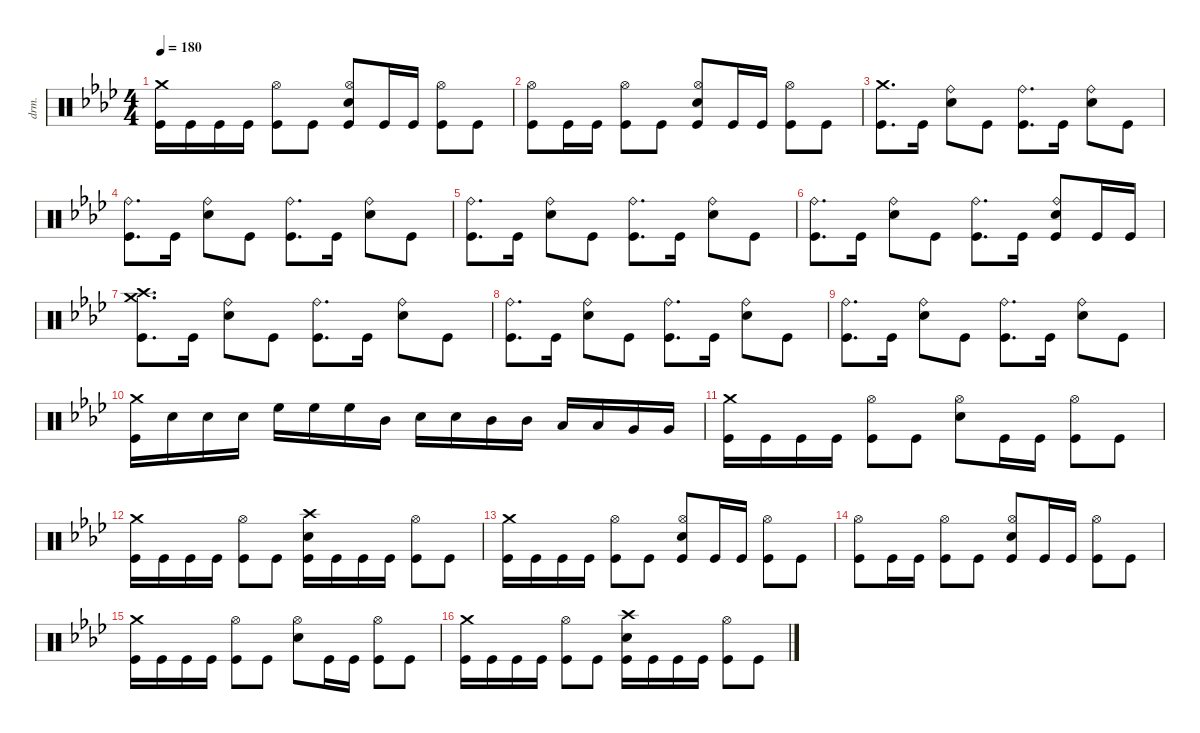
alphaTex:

\defaultSystemsLayout 4
\hideDynamics
\bracketExtendMode nobrackets
\track ("Percussion" "drm.") {instrument percussion}
\staff {score}
\articulation defaults
\ts (4 4)
\tempo 180
\clef neutral
\ks fminor
("Crash medium (hit)"{acc forcenatural} "Kick (hit)"{acc forcenatural}).16{dy f beam Down} "Kick (hit)"{acc forcenatural}.16{beam Down} "Kick (hit)"{acc forcenatural}.16{beam Down} "Kick (hit)"{acc forcenatural}.16{beam Down} ("Hi-Hat (open)"{acc forcenatural} "Kick (hit)"{acc forcenatural}).8{beam Down} "Kick (hit)"{acc forcenatural}.8{beam Down} ("Hi-Hat (open)"{acc forcenatural} "Snare (hit) 2"{acc forcenatural} "Kick (hit)"{acc forcenatural}).8{beam Up} "Kick (hit)"{acc forcenatural}.16{beam Up} "Kick (hit)"{acc forcenatural}.16{beam Up} ("Hi-Hat (open)"{acc forcenatural} "Kick (hit)"{acc forcenatural}).8{beam Down} "Kick (hit)"{acc forcenatural}.8{beam Down} |
("Hi-Hat (open)"{acc forcenatural} "Kick (hit)"{acc forcenatural}).8{beam Down} "Kick (hit)"{acc forcenatural}.16{beam Down} "Kick (hit)"{acc forcenatural}.16{beam Down} ("Hi-Hat (open)"{acc forcenatural} "Kick (hit)"{acc forcenatural}).8{beam Down} "Kick (hit)"{acc forcenatural}.8{beam Down} ("Hi-Hat (open)"{acc forcenatural} "Snare (hit) 2"{acc forcenatural} "Kick (hit)"{acc forcenatural}).8{beam Up} "Kick (hit)"{acc forcenatural}.16{beam Up} "Kick (hit)"{acc forcenatural}.16{beam Up} ("Hi-Hat (open)"{acc forcenatural} "Kick (hit)"{acc forcenatural}).8{beam Down} "Kick (hit)"{acc forcenatural}.8{beam Down} |
("Crash medium (hit)"{acc forcenatural} "Kick (hit)"{acc forcenatural}).8{d beam Down} "Kick (hit)"{acc forcenatural}.16{beam Down} ("Ride (bell)"{acc forcenatural} "Snare (hit) 2"{acc forcenatural}).8{beam Down} "Kick (hit)"{acc forcenatural}.8{beam Down} ("Ride (bell)"{acc forcenatural} "Kick (hit)"{acc forcenatural}).8{d beam Down} "Kick (hit)"{acc forcenatural}.16{beam Down} ("Ride (bell)"{acc forcenatural} "Snare (hit) 2"{acc forcenatural}).8{beam Down} "Kick (hit)"{acc forcenatural}.8{beam Down} |
("Ride (bell)"{acc forcenatural} "Kick (hit)"{acc forcenatural}).8{d beam Down} "Kick (hit)"{acc forcenatural}.16{beam Down} ("Ride (bell)"{acc forcenatural} "Snare (hit) 2"{acc forcenatural}).8{beam Down} "Kick (hit)"{acc forcenatural}.8{beam Down} ("Ride (bell)"{acc forcenatural} "Kick (hit)"{acc forcenatural}).8{d beam Down} "Kick (hit)"{acc forcenatural}.16{beam Down} ("Ride (bell)"{acc forcenatural} "Snare (hit) 2"{acc forcenatural}).8{beam Down} "Kick (hit)"{acc forcenatural}.8{beam Down} |
("Ride (bell)"{acc forcenatural} "Kick (hit)"{acc forcenatural}).8{d beam Down} "Kick (hit)"{acc forcenatural}.16{beam Down} ("Ride (bell)"{acc forcenatural} "Snare (hit) 2"{acc forcenatural}).8{beam Down} "Kick (hit)"{acc forcenatural}.8{beam Down} ("Ride (bell)"{acc forcenatural} "Kick (hit)"{acc forcenatural}).8{d beam Down} "Kick (hit)"{acc forcenatural}.16{beam Down} ("Ride (bell)"{acc forcenatural} "Snare (hit) 2"{acc forcenatural}).8{beam Down} "Kick (hit)"{acc forcenatural}.8{beam Down} |
("Ride (bell)"{acc forcenatural} "Kick (hit)"{acc forcenatural}).8{d beam Down} "Kick (hit)"{acc forcenatural}.16{beam Down} ("Ride (bell)"{acc forcenatural} "Snare (hit) 2"{acc forcenatural}).8{beam Down} "Kick (hit)"{acc forcenatural}.8{beam Down} ("Ride (bell)"{acc forcenatural} "Kick (hit)"{acc forcenatural}).8{d beam Down} "Kick (hit)"{acc forcenatural}.16{beam Down} ("Ride (bell)"{acc forcenatural} "Snare (hit) 2"{acc forcenatural} "Kick (hit)"{acc forcenatural}).8{beam Up} "Kick (hit)"{acc forcenatural}.16{beam Up} "Kick (hit)"{acc forcenatural}.16{beam Up} |
("Crash high (hit)"{acc forcenatural} "Crash medium (hit)"{acc forcenatural} "Kick (hit)"{acc forcenatural}).8{d beam Down} "Kick (hit)"{acc forcenatural}.16{beam Down} ("Ride (bell)"{acc forcenatural} "Snare (hit) 2"{acc forcenatural}).8{beam Down} "Kick (hit)"{acc forcenatural}.8{beam Down} ("Ride (bell)"{acc forcenatural} "Kick (hit)"{acc forcenatural}).8{d beam Down} "Kick (hit)"{acc forcenatural}.16{beam Down} ("Ride (bell)"{acc forcenatural} "Snare (hit) 2"{acc forcenatural}).8{beam Down} "Kick (hit)"{acc forcenatural}.8{beam Down} |
("Ride (bell)"{acc forcenatural} "Kick (hit)"{acc forcenatural}).8{d beam Down} "Kick (hit)"{acc forcenatural}.16{beam Down} ("Ride (bell)"{acc forcenatural} "Snare (hit) 2"{acc forcenatural}).8{beam Down} "Kick (hit)"{acc forcenatural}.8{beam Down} ("Ride (bell)"{acc forcenatural} "Kick (hit)"{acc forcenatural}).8{d beam Down} "Kick (hit)"{acc forcenatural}.16{beam Down} ("Ride (bell)"{acc forcenatural} "Snare (hit) 2"{acc forcenatural}).8{beam Down} "Kick (hit)"{acc forcenatural}.8{beam Down} |
("Ride (bell)"{acc forcenatural} "Kick (hit)"{acc forcenatural}).8{d beam Down} "Kick (hit)"{acc forcenatural}.16{beam Down} ("Ride (bell)"{acc forcenatural} "Snare (hit) 2"{acc forcenatural}).8{beam Down} "Kick (hit)"{acc forcenatural}.8{beam Down} ("Ride (bell)"{acc forcenatural} "Kick (hit)"{acc forcenatural}).8{d beam Down} "Kick (hit)"{acc forcenatural}.16{beam Down} ("Ride (bell)"{acc forcenatural} "Snare (hit) 2"{acc forcenatural}).8{beam Down} "Kick (hit)"{acc forcenatural}.8{beam Down} |
("Crash medium (hit)"{acc forcenatural} "Kick (hit)"{acc forcenatural}).16{beam Down} "Snare (hit) 2"{acc forcenatural}.16{beam Down} "Snare (hit) 2"{acc forcenatural}.16{beam Down} "Snare (hit) 2"{acc forcenatural}.16{beam Down} "High Floor Tom (hit)"{acc forcenatural}.16{beam Down} "High Floor Tom (hit)"{acc forcenatural}.16{beam Down} "High Floor Tom (hit)"{acc forcenatural}.16{beam Down} "Mid Tom (hit)"{acc forcenatural}.16{beam Down} "Snare (hit) 2"{acc forcenatural}.16{beam Down} "Snare (hit) 2"{acc forcenatural}.16{beam Down} "Mid Tom (hit)"{acc forcenatural}.16{beam Down} "Mid Tom (hit)"{acc forcenatural}.16{beam Down} "Low Tom (hit)"{acc forcenatural}.16{beam Up} "Low Tom (hit)"{acc forcenatural}.16{beam Up} "Very Low Tom (hit)"{acc forcenatural}.16{beam Up} "Very Low Tom (hit)"{acc forcenatural}.16{beam Up} |
("Crash medium (hit)"{acc forcenatural} "Kick (hit)"{acc forcenatural}).16{beam Down} "Kick (hit)"{acc forcenatural}.16{beam Down} "Kick (hit)"{acc forcenatural}.16{beam Down} "Kick (hit)"{acc forcenatural}.16{beam Down} ("Hi-Hat (open)"{acc forcenatural} "Kick (hit)"{acc forcenatural}).8{beam Down} "Kick (hit)"{acc forcenatural}.8{beam Down} ("Hi-Hat (open)"{acc forcenatural} "Snare (hit) 2"{acc forcenatural}).8{beam Down} "Kick (hit)"{acc forcenatural}.16{beam Down} "Kick (hit)"{acc forcenatural}.16{beam Down} ("Hi-Hat (open)"{acc forcenatural} "Kick (hit)"{acc forcenatural}).8{beam Down} "Kick (hit)"{acc forcenatural}.8{beam Down} |
("Crash medium (hit)"{acc forcenatural} "Kick (hit)"{acc forcenatural}).16{beam Down} "Kick (hit)"{acc forcenatural}.16{beam Down} "Kick (hit)"{acc forcenatural}.16{beam Down} "Kick (hit)"{acc forcenatural}.16{beam Down} ("Hi-Hat (open)"{acc forcenatural} "Kick (hit)"{acc forcenatural}).8{beam Down} "Kick (hit)"{acc forcenatural}.8{beam Down} ("Crash high (hit)"{acc forcenatural} "Snare (hit) 2"{acc forcenatural} "Kick (hit)"{acc forcenatural}).16{beam Down} "Kick (hit)"{acc forcenatural}.16{beam Down} "Kick (hit)"{acc forcenatural}.16{beam Down} "Kick (hit)"{acc forcenatural}.16{beam Down} ("Hi-Hat (open)"{acc forcenatural} "Kick (hit)"{acc forcenatural}).8{beam Down} "Kick (hit)"{acc forcenatural}.8{beam Down} |
("Crash medium (hit)"{acc forcenatural} "Kick (hit)"{acc forcenatural}).16{beam Down} "Kick (hit)"{acc forcenatural}.16{beam Down} "Kick (hit)"{acc forcenatural}.16{beam Down} "Kick (hit)"{acc forcenatural}.16{beam Down} ("Hi-Hat (open)"{acc forcenatural} "Kick (hit)"{acc forcenatural}).8{beam Down} "Kick (hit)"{acc forcenatural}.8{beam Down} ("Hi-Hat (open)"{acc forcenatural} "Snare (hit) 2"{acc forcenatural} "Kick (hit)"{acc forcenatural}).8{beam Up} "Kick (hit)"{acc forcenatural}.16{beam Up} "Kick (hit)"{acc forcenatural}.16{beam Up} ("Hi-Hat (open)"{acc forcenatural} "Kick (hit)"{acc forcenatural}).8{beam Down} "Kick (hit)"{acc forcenatural}.8{beam Down} |
("Hi-Hat (open)"{acc forcenatural} "Kick (hit)"{acc forcenatural}).8{beam Down} "Kick (hit)"{acc forcenatural}.16{beam Down} "Kick (hit)"{acc forcenatural}.16{beam Down} ("Hi-Hat (open)"{acc forcenatural} "Kick (hit)"{acc forcenatural}).8{beam Down} "Kick (hit)"{acc forcenatural}.8{beam Down} ("Hi-Hat (open)"{acc forcenatural} "Snare (hit) 2"{acc forcenatural} "Kick (hit)"{acc forcenatural}).8{beam Up} "Kick (hit)"{acc forcenatural}.16{beam Up} "Kick (hit)"{acc forcenatural}.16{beam Up} ("Hi-Hat (open)"{acc forcenatural} "Kick (hit)"{acc forcenatural}).8{beam Down} "Kick (hit)"{acc forcenatural}.8{beam Down} |
("Crash medium (hit)"{acc forcenatural} "Kick (hit)"{acc forcenatural}).16{beam Down} "Kick (hit)"{acc forcenatural}.16{beam Down} "Kick (hit)"{acc forcenatural}.16{beam Down} "Kick (hit)"{acc forcenatural}.16{beam Down} ("Hi-Hat (open)"{acc forcenatural} "Kick (hit)"{acc forcenatural}).8{beam Down} "Kick (hit)"{acc forcenatural}.8{beam Down} ("Hi-Hat (open)"{acc forcenatural} "Snare (hit) 2"{acc forcenatural}).8{beam Down} "Kick (hit)"{acc forcenatural}.16{beam Down} "Kick (hit)"{acc forcenatural}.16{beam Down} ("Hi-Hat (open)"{acc forcenatural} "Kick (hit)"{acc forcenatural}).8{beam Down} "Kick (hit)"{acc forcenatural}.8{beam Down} |
("Crash medium (hit)"{acc forcenatural} "Kick (hit)"{acc forcenatural}).16{beam Down} "Kick (hit)"{acc forcenatural}.16{beam Down} "Kick (hit)"{acc forcenatural}.16{beam Down} "Kick (hit)"{acc forcenatural}.16{beam Down} ("Hi-Hat (open)"{acc forcenatural} "Kick (hit)"{acc forcenatural}).8{beam Down} "Kick (hit)"{acc forcenatural}.8{beam Down} ("Crash high (hit)"{acc forcenatural} "Snare (hit) 2"{acc forcenatural} "Kick (hit)"{acc forcenatural}).16{beam Down} "Kick (hit)"{acc forcenatural}.16{beam Down} "Kick (hit)"{acc forcenatural}.16{beam Down} "Kick (hit)"{acc forcenatural}.16{beam Down} ("Hi-Hat (open)"{acc forcenatural} "Kick (hit)"{acc forcenatural}).8{beam Down} "Kick (hit)"{acc forcenatural}.8{beam Down}
